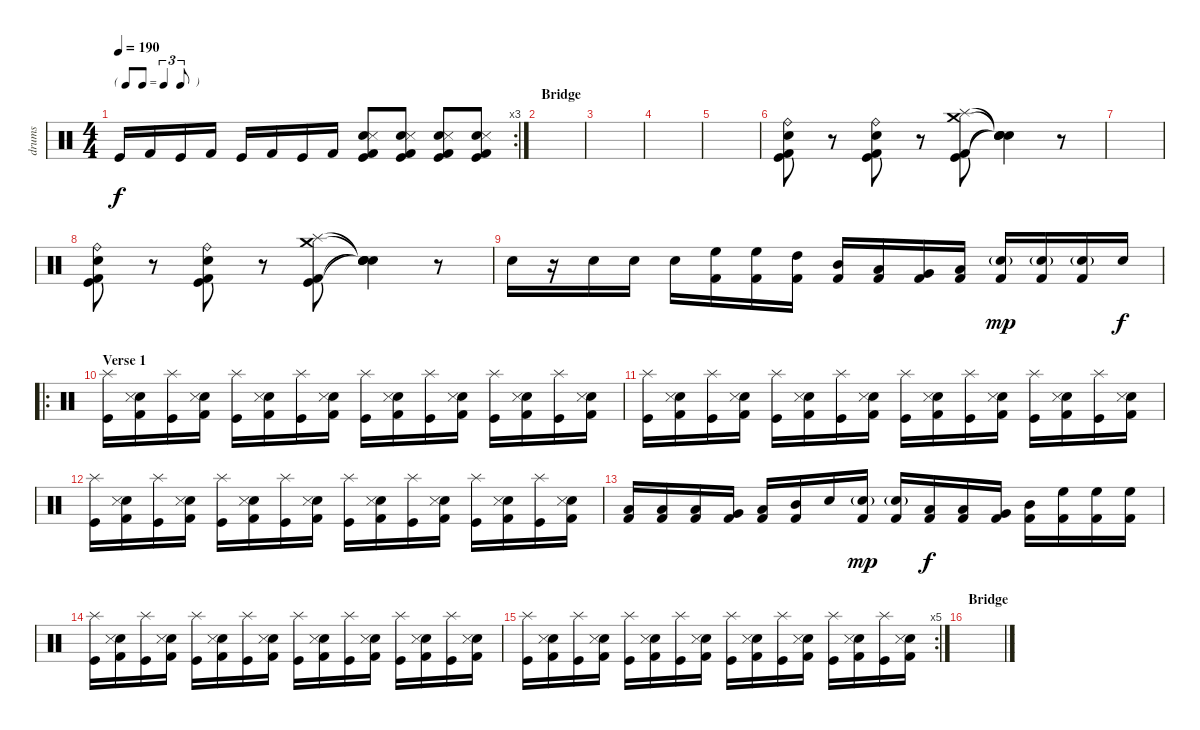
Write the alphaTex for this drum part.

\track ("drums" "drums") {instrument percussion}
\staff {score}
\articulation defaults
\rc 3
\ts (4 4)
\tf triplet8th
\tempo 190
\clef neutral
\ks c "Kick (hit)".16{dy f} "Kick (hit) 2".16 "Kick (hit)".16 "Kick (hit) 2".16 "Kick (hit)".16 "Kick (hit) 2".16 "Kick (hit)".16 "Kick (hit) 2".16
("Electric Snare (hit)" "Snare (side stick) 3" "Kick (hit)" "Kick (hit) 2").8 ("Electric Snare (hit)" "Snare (side stick) 3" "Kick (hit)" "Kick (hit) 2").8 ("Electric Snare (hit)" "Snare (side stick) 3" "Kick (hit)" "Kick (hit) 2").8 ("Electric Snare (hit)" "Snare (side stick) 3" "Kick (hit)" "Kick (hit) 2").8 |
\section ("" "Bridge")
|
|
|
|
("Ride (bell)" "Electric Snare (hit)" "Kick (hit)" "Kick (hit) 2").8 r.8 ("Ride (bell)" "Electric Snare (hit)" "Kick (hit)" "Kick (hit) 2").8 r.8 ("Crash medium (hit)" "Splash (hit)" "Kick (hit)" "Kick (hit) 2").8 ("Snare (hit)"{t} "Snare (hit)"{t} "Snare (hit)"{t} "Snare (hit)"{t}).4 r.8 |
|
("Ride (bell)" "Electric Snare (hit)" "Kick (hit)" "Kick (hit) 2").8 r.8 ("Ride (bell)" "Electric Snare (hit)" "Kick (hit)" "Kick (hit) 2").8 r.8 ("Crash medium (hit)" "Splash (hit)" "Kick (hit)" "Kick (hit) 2").8 ("Snare (hit)"{t} "Snare (hit)"{t} "Snare (hit)"{t} "Snare (hit)"{t}).4 r.8 |
"Electric Snare (hit)".16 r.16 "Electric Snare (hit)".16 "Electric Snare (hit)".16 "Electric Snare (hit)".16 ("High Floor Tom (hit)" "Kick (hit) 2").16 ("High Floor Tom (hit)" "Kick (hit) 2").16 ("High Tom (hit)" "Kick (hit) 2").16 ("Mid Tom (hit)" "Kick (hit) 2").16 ("Low Tom (hit)" "Kick (hit) 2").16 ("Very Low Tom (hit)" "Kick (hit) 2").16 ("Low Floor Tom (hit)" "Kick (hit) 2").16 ("Snare (hit) 2"{g} "Kick (hit) 2").16{dy mp} ("Snare (hit) 2"{g} "Kick (hit) 2").16 ("Snare (hit) 2"{g} "Kick (hit) 2").16 "Electric Snare (hit)".16{dy f} |
\ro
\section ("" "Verse 1")
("Kick (hit)" "Splash (hit)").16 ("Kick (hit) 2" "Electric Snare (hit)" "Snare (side stick) 3").16 ("Kick (hit)" "Splash (hit)").16 ("Kick (hit) 2" "Electric Snare (hit)" "Snare (side stick) 3").16 ("Kick (hit)" "Splash (hit)").16 ("Kick (hit) 2" "Electric Snare (hit)" "Snare (side stick) 3").16 ("Kick (hit)" "Splash (hit)").16 ("Kick (hit) 2" "Electric Snare (hit)" "Snare (side stick) 3").16 ("Kick (hit)" "Splash (hit)").16 ("Kick (hit) 2" "Electric Snare (hit)" "Snare (side stick) 3").16 ("Kick (hit)" "Splash (hit)").16 ("Kick (hit) 2" "Electric Snare (hit)" "Snare (side stick) 3").16 ("Kick (hit)" "Splash (hit)").16 ("Kick (hit) 2" "Electric Snare (hit)" "Snare (side stick) 3").16 ("Kick (hit)" "Splash (hit)").16 ("Kick (hit) 2" "Electric Snare (hit)" "Snare (side stick) 3").16 |
("Kick (hit)" "Splash (hit)").16 ("Kick (hit) 2" "Electric Snare (hit)" "Snare (side stick) 3").16 ("Kick (hit)" "Splash (hit)").16 ("Kick (hit) 2" "Electric Snare (hit)" "Snare (side stick) 3").16 ("Kick (hit)" "Splash (hit)").16 ("Kick (hit) 2" "Electric Snare (hit)" "Snare (side stick) 3").16 ("Kick (hit)" "Splash (hit)").16 ("Kick (hit) 2" "Electric Snare (hit)" "Snare (side stick) 3").16 ("Kick (hit)" "Splash (hit)").16 ("Kick (hit) 2" "Electric Snare (hit)" "Snare (side stick) 3").16 ("Kick (hit)" "Splash (hit)").16 ("Kick (hit) 2" "Electric Snare (hit)" "Snare (side stick) 3").16 ("Kick (hit)" "Splash (hit)").16 ("Kick (hit) 2" "Electric Snare (hit)" "Snare (side stick) 3").16 ("Kick (hit)" "Splash (hit)").16 ("Kick (hit) 2" "Electric Snare (hit)" "Snare (side stick) 3").16 |
("Kick (hit)" "Splash (hit)").16 ("Kick (hit) 2" "Electric Snare (hit)" "Snare (side stick) 3").16 ("Kick (hit)" "Splash (hit)").16 ("Kick (hit) 2" "Electric Snare (hit)" "Snare (side stick) 3").16 ("Kick (hit)" "Splash (hit)").16 ("Kick (hit) 2" "Electric Snare (hit)" "Snare (side stick) 3").16 ("Kick (hit)" "Splash (hit)").16 ("Kick (hit) 2" "Electric Snare (hit)" "Snare (side stick) 3").16 ("Kick (hit)" "Splash (hit)").16 ("Kick (hit) 2" "Electric Snare (hit)" "Snare (side stick) 3").16 ("Kick (hit)" "Splash (hit)").16 ("Kick (hit) 2" "Electric Snare (hit)" "Snare (side stick) 3").16 ("Kick (hit)" "Splash (hit)").16 ("Kick (hit) 2" "Electric Snare (hit)" "Snare (side stick) 3").16 ("Kick (hit)" "Splash (hit)").16 ("Kick (hit) 2" "Electric Snare (hit)" "Snare (side stick) 3").16 |
("Low Floor Tom (hit)" "Kick (hit) 2").16 ("Low Floor Tom (hit)" "Kick (hit) 2").16 ("Low Floor Tom (hit)" "Kick (hit) 2").16 ("Very Low Tom (hit)" "Kick (hit) 2").16 ("Low Tom (hit)" "Kick (hit) 2").16 ("Mid Tom (hit)" "Kick (hit) 2").16 "Electric Snare (hit)".16 ("Snare (hit) 2"{g} "Kick (hit) 2").16{dy mp} ("Snare (hit) 2"{g} "Kick (hit) 2").16 ("Low Floor Tom (hit)" "Kick (hit) 2").16{dy f} ("Low Tom (hit)" "Kick (hit) 2").16 ("Very Low Tom (hit)" "Kick (hit) 2").16 ("Mid Tom (hit)" "Kick (hit) 2").16 ("High Floor Tom (hit)" "Kick (hit) 2").16 ("High Floor Tom (hit)" "Kick (hit) 2").16 ("High Floor Tom (hit)" "Kick (hit) 2").16 |
("Kick (hit)" "Splash (hit)").16 ("Kick (hit) 2" "Electric Snare (hit)" "Snare (side stick) 3").16 ("Kick (hit)" "Splash (hit)").16 ("Kick (hit) 2" "Electric Snare (hit)" "Snare (side stick) 3").16 ("Kick (hit)" "Splash (hit)").16 ("Kick (hit) 2" "Electric Snare (hit)" "Snare (side stick) 3").16 ("Kick (hit)" "Splash (hit)").16 ("Kick (hit) 2" "Electric Snare (hit)" "Snare (side stick) 3").16 ("Kick (hit)" "Splash (hit)").16 ("Kick (hit) 2" "Electric Snare (hit)" "Snare (side stick) 3").16 ("Kick (hit)" "Splash (hit)").16 ("Kick (hit) 2" "Electric Snare (hit)" "Snare (side stick) 3").16 ("Kick (hit)" "Splash (hit)").16 ("Kick (hit) 2" "Electric Snare (hit)" "Snare (side stick) 3").16 ("Kick (hit)" "Splash (hit)").16 ("Kick (hit) 2" "Electric Snare (hit)" "Snare (side stick) 3").16 |
\rc 5
("Kick (hit)" "Splash (hit)").16 ("Kick (hit) 2" "Electric Snare (hit)" "Snare (side stick) 3").16 ("Kick (hit)" "Splash (hit)").16 ("Kick (hit) 2" "Electric Snare (hit)" "Snare (side stick) 3").16 ("Kick (hit)" "Splash (hit)").16 ("Kick (hit) 2" "Electric Snare (hit)" "Snare (side stick) 3").16 ("Kick (hit)" "Splash (hit)").16 ("Kick (hit) 2" "Electric Snare (hit)" "Snare (side stick) 3").16 ("Kick (hit)" "Splash (hit)").16 ("Kick (hit) 2" "Electric Snare (hit)" "Snare (side stick) 3").16 ("Kick (hit)" "Splash (hit)").16 ("Kick (hit) 2" "Electric Snare (hit)" "Snare (side stick) 3").16 ("Kick (hit)" "Splash (hit)").16 ("Kick (hit) 2" "Electric Snare (hit)" "Snare (side stick) 3").16 ("Kick (hit)" "Splash (hit)").16 ("Kick (hit) 2" "Electric Snare (hit)" "Snare (side stick) 3").16 |
\section ("" "Bridge")
